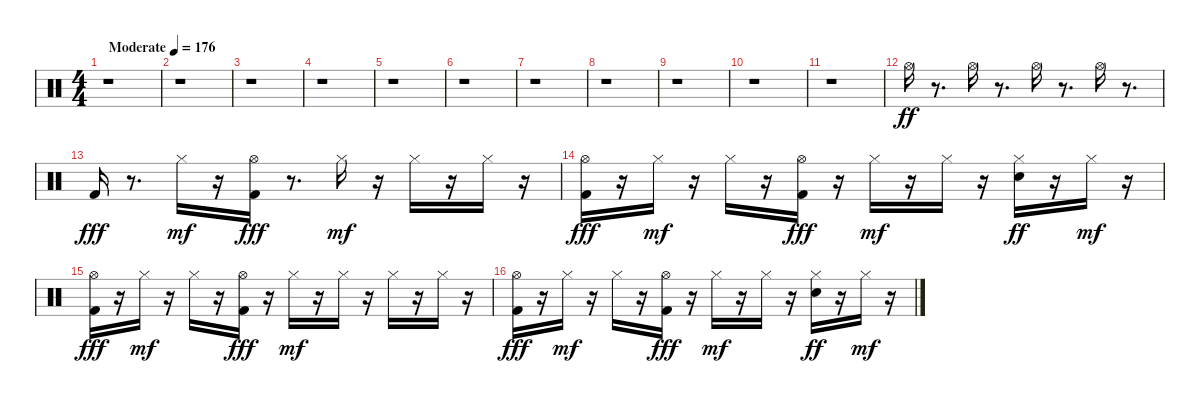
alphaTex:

\track "" {instrument percussion}
\staff {score}
\articulation defaults
\ts (4 4)
\tempo (176 "Moderate")
\clef neutral
\ks c
r.1{dy ff} |
r.1 |
r.1 |
r.1 |
r.1 |
r.1 |
r.1 |
r.1 |
r.1 |
r.1 |
r.1 |
"Hi-Hat (open)".16 r.8{d} "Hi-Hat (open)".16 r.8{d} "Hi-Hat (open)".16 r.8{d} "Hi-Hat (open)".16 r.8{d} |
"Kick (hit) 2".16{dy fff} r.8{d} "Hi-Hat (closed)".16{dy mf} r.16 ("Hi-Hat (open)" "Kick (hit) 2").16{dy fff} r.8{d} "Hi-Hat (closed)".16{dy mf} r.16 "Hi-Hat (closed)".16 r.16 "Hi-Hat (closed)".16 r.16 |
("Hi-Hat (open)" "Kick (hit) 2").16{dy fff} r.16 "Hi-Hat (closed)".16{dy mf} r.16 "Hi-Hat (closed)".16 r.16 ("Hi-Hat (open)" "Kick (hit) 2").16{dy fff} r.16 "Hi-Hat (closed)".16{dy mf} r.16 "Hi-Hat (closed)".16 r.16 ("Hi-Hat (closed)" "Electric Snare (hit)").16{dy ff} r.16 "Hi-Hat (closed)".16{dy mf} r.16 |
("Hi-Hat (open)" "Kick (hit) 2").16{dy fff} r.16 "Hi-Hat (closed)".16{dy mf} r.16 "Hi-Hat (closed)".16 r.16 ("Hi-Hat (open)" "Kick (hit) 2").16{dy fff} r.16 "Hi-Hat (closed)".16{dy mf} r.16 "Hi-Hat (closed)".16 r.16 "Hi-Hat (closed)".16 r.16 "Hi-Hat (closed)".16 r.16 |
("Hi-Hat (open)" "Kick (hit) 2").16{dy fff} r.16 "Hi-Hat (closed)".16{dy mf} r.16 "Hi-Hat (closed)".16 r.16 ("Hi-Hat (open)" "Kick (hit) 2").16{dy fff} r.16 "Hi-Hat (closed)".16{dy mf} r.16 "Hi-Hat (closed)".16 r.16 ("Hi-Hat (closed)" "Electric Snare (hit)").16{dy ff} r.16 "Hi-Hat (closed)".16{dy mf} r.16
